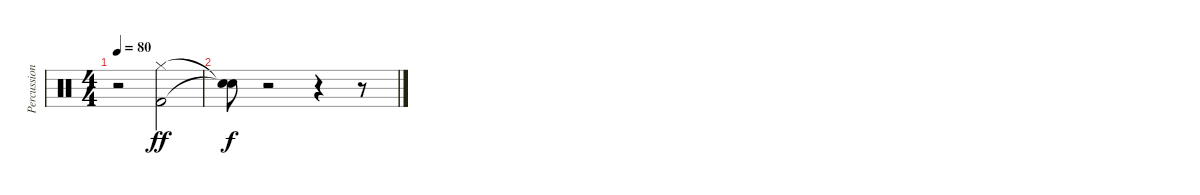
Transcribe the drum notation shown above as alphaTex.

\track ("Percussion" "Percussion") {instrument percussion}
\staff {score}
\articulation defaults
\ts (4 4)
\tempo 80
\clef neutral
\ks c
r.2{dy mp} ("Hi-Hat (closed)" "Kick (hit) 2").2{dy ff} |
("Snare (hit)"{t} "Snare (hit)"{t}).8{dy f} r.2 r.4 r.8
